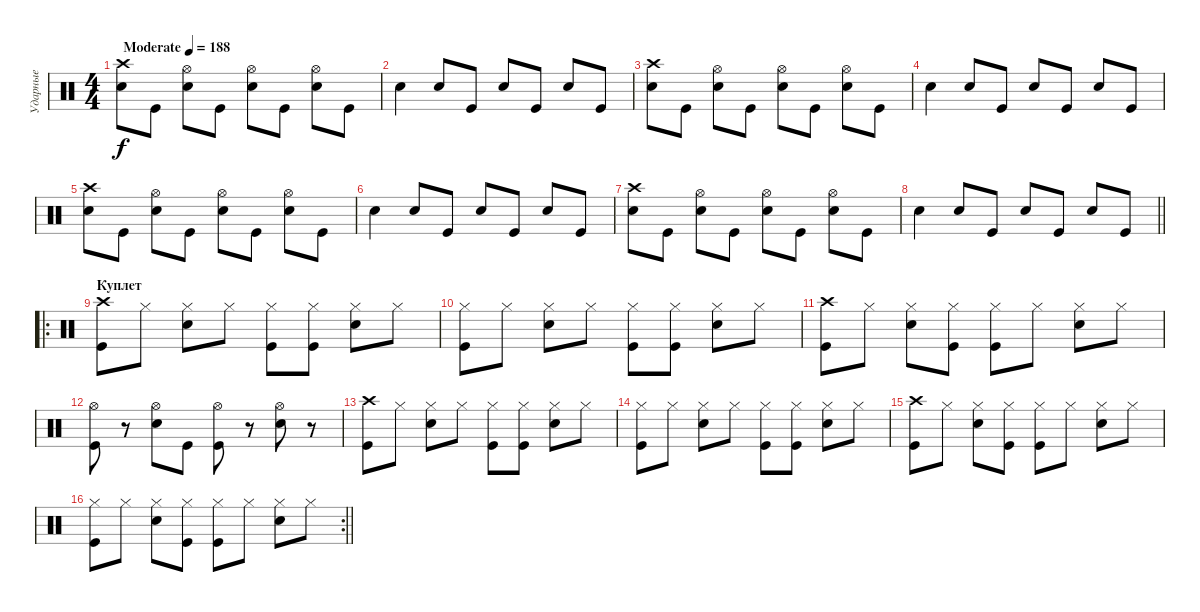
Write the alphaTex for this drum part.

\track ("Ударные" "Ударные") {instrument percussion}
\staff {score}
\articulation defaults
\ts (4 4)
\tempo (188 "Moderate")
\clef neutral
\ks c
("Electric Snare (hit)" "Crash high (hit)").8{dy f} "Kick (hit)".8 ("Electric Snare (hit)" "Hi-Hat (open)").8 "Kick (hit)".8 ("Electric Snare (hit)" "Hi-Hat (open)").8 "Kick (hit)".8 ("Electric Snare (hit)" "Hi-Hat (open)").8 "Kick (hit)".8 |
"Electric Snare (hit)".4 "Electric Snare (hit)".8 "Kick (hit)".8 "Electric Snare (hit)".8 "Kick (hit)".8 "Electric Snare (hit)".8 "Kick (hit)".8 |
("Electric Snare (hit)" "Crash high (hit)").8 "Kick (hit)".8 ("Electric Snare (hit)" "Hi-Hat (open)").8 "Kick (hit)".8 ("Electric Snare (hit)" "Hi-Hat (open)").8 "Kick (hit)".8 ("Electric Snare (hit)" "Hi-Hat (open)").8 "Kick (hit)".8 |
"Electric Snare (hit)".4 "Electric Snare (hit)".8 "Kick (hit)".8 "Electric Snare (hit)".8 "Kick (hit)".8 "Electric Snare (hit)".8 "Kick (hit)".8 |
("Electric Snare (hit)" "Crash high (hit)").8 "Kick (hit)".8 ("Electric Snare (hit)" "Hi-Hat (open)").8 "Kick (hit)".8 ("Electric Snare (hit)" "Hi-Hat (open)").8 "Kick (hit)".8 ("Electric Snare (hit)" "Hi-Hat (open)").8 "Kick (hit)".8 |
"Electric Snare (hit)".4 "Electric Snare (hit)".8 "Kick (hit)".8 "Electric Snare (hit)".8 "Kick (hit)".8 "Electric Snare (hit)".8 "Kick (hit)".8 |
("Electric Snare (hit)" "Crash high (hit)").8 "Kick (hit)".8 ("Electric Snare (hit)" "Hi-Hat (open)").8 "Kick (hit)".8 ("Electric Snare (hit)" "Hi-Hat (open)").8 "Kick (hit)".8 ("Electric Snare (hit)" "Hi-Hat (open)").8 "Kick (hit)".8 |
\barLineRight lightlight "Electric Snare (hit)".4 "Electric Snare (hit)".8 "Kick (hit)".8 "Electric Snare (hit)".8 "Kick (hit)".8 "Electric Snare (hit)".8 "Kick (hit)".8
|
\ro
\section ("" "Куплет")
("Kick (hit)" "Crash high (hit)").8 "Hi-Hat (closed)".8 ("Electric Snare (hit)" "Hi-Hat (closed)").8 "Hi-Hat (closed)".8 ("Kick (hit)" "Hi-Hat (closed)").8 ("Kick (hit)" "Hi-Hat (closed)").8 ("Electric Snare (hit)" "Hi-Hat (closed)").8 "Hi-Hat (closed)".8 |
("Kick (hit)" "Hi-Hat (closed)").8 "Hi-Hat (closed)".8 ("Electric Snare (hit)" "Hi-Hat (closed)").8 "Hi-Hat (closed)".8 ("Kick (hit)" "Hi-Hat (closed)").8 ("Kick (hit)" "Hi-Hat (closed)").8 ("Electric Snare (hit)" "Hi-Hat (closed)").8 "Hi-Hat (closed)".8 |
("Kick (hit)" "Crash high (hit)").8 "Hi-Hat (closed)".8 ("Electric Snare (hit)" "Hi-Hat (closed)").8 ("Kick (hit)" "Hi-Hat (closed)").8 ("Kick (hit)" "Hi-Hat (closed)").8 "Hi-Hat (closed)".8 ("Electric Snare (hit)" "Hi-Hat (closed)").8 "Hi-Hat (closed)".8 |
("Kick (hit)" "Hi-Hat (open)").8 r.8 ("Electric Snare (hit)" "Hi-Hat (open)").8 "Kick (hit)".8 ("Kick (hit)" "Hi-Hat (open)").8 r.8 ("Electric Snare (hit)" "Hi-Hat (open)").8 r.8 |
("Kick (hit)" "Crash high (hit)").8 "Hi-Hat (closed)".8 ("Electric Snare (hit)" "Hi-Hat (closed)").8 "Hi-Hat (closed)".8 ("Kick (hit)" "Hi-Hat (closed)").8 ("Kick (hit)" "Hi-Hat (closed)").8 ("Electric Snare (hit)" "Hi-Hat (closed)").8 "Hi-Hat (closed)".8 |
("Kick (hit)" "Hi-Hat (closed)").8 "Hi-Hat (closed)".8 ("Electric Snare (hit)" "Hi-Hat (closed)").8 "Hi-Hat (closed)".8 ("Kick (hit)" "Hi-Hat (closed)").8 ("Kick (hit)" "Hi-Hat (closed)").8 ("Electric Snare (hit)" "Hi-Hat (closed)").8 "Hi-Hat (closed)".8 |
("Kick (hit)" "Crash high (hit)").8 "Hi-Hat (closed)".8 ("Electric Snare (hit)" "Hi-Hat (closed)").8 ("Kick (hit)" "Hi-Hat (closed)").8 ("Kick (hit)" "Hi-Hat (closed)").8 "Hi-Hat (closed)".8 ("Electric Snare (hit)" "Hi-Hat (closed)").8 "Hi-Hat (closed)".8 |
\rc 2
\barLineRight lightlight
("Kick (hit)" "Hi-Hat (closed)").8 "Hi-Hat (closed)".8 ("Electric Snare (hit)" "Hi-Hat (closed)").8 ("Kick (hit)" "Hi-Hat (closed)").8 ("Kick (hit)" "Hi-Hat (closed)").8 "Hi-Hat (closed)".8 ("Electric Snare (hit)" "Hi-Hat (closed)").8 "Hi-Hat (closed)".8
